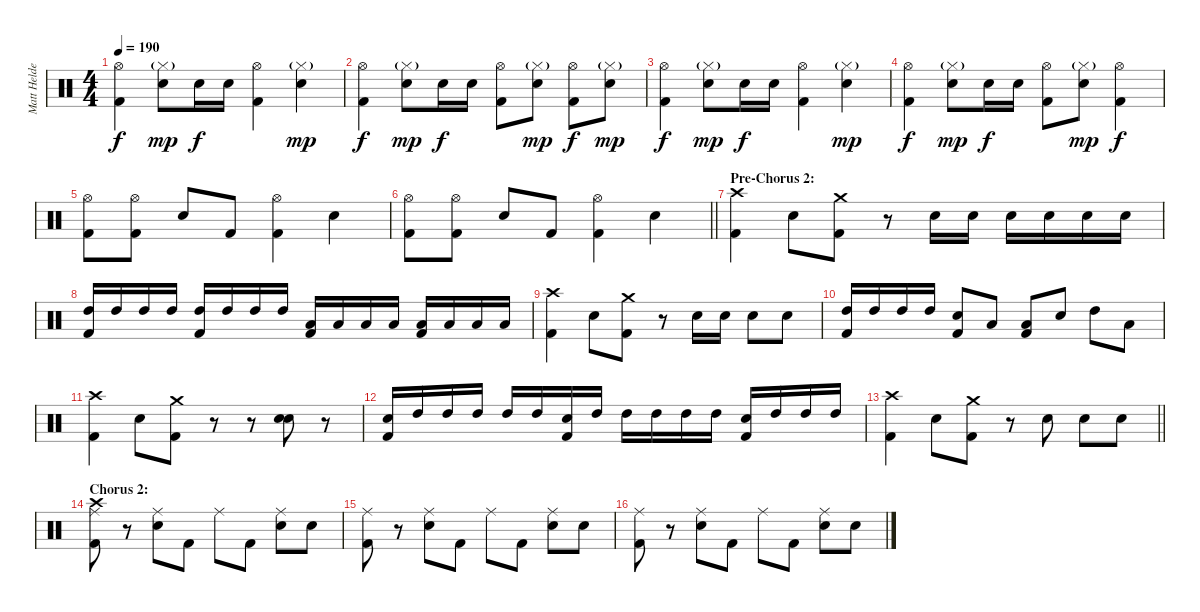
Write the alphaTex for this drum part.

\track ("Matt Helders (Percussion)" "Matt Helde") {instrument percussion}
\staff {score}
\articulation defaults
\ts (4 4)
\tempo 190
\clef neutral
\ks c
("Hi-Hat (open)" "Kick (hit) 2").4{dy f} ("Hi-Hat (closed)"{g} "Snare (hit) 2").8{dy mp} "Snare (hit) 2".16{dy f} "Snare (hit) 2".16 ("Hi-Hat (open)" "Kick (hit) 2").4 ("Hi-Hat (closed)"{g} "Snare (hit) 2").4{dy mp} |
("Hi-Hat (open)" "Kick (hit) 2").4{dy f} ("Hi-Hat (closed)"{g} "Snare (hit) 2").8{dy mp} "Snare (hit) 2".16{dy f} "Snare (hit) 2".16 ("Hi-Hat (open)" "Kick (hit) 2").8 ("Hi-Hat (closed)"{g} "Snare (hit) 2").8{dy mp} ("Hi-Hat (open)" "Kick (hit) 2").8{dy f} ("Hi-Hat (closed)"{g} "Snare (hit) 2").8{dy mp} |
("Hi-Hat (open)" "Kick (hit) 2").4{dy f} ("Hi-Hat (closed)"{g} "Snare (hit) 2").8{dy mp} "Snare (hit) 2".16{dy f} "Snare (hit) 2".16 ("Hi-Hat (open)" "Kick (hit) 2").4 ("Hi-Hat (closed)"{g} "Snare (hit) 2").4{dy mp} |
("Hi-Hat (open)" "Kick (hit) 2").4{dy f} ("Hi-Hat (closed)"{g} "Snare (hit) 2").8{dy mp} "Snare (hit) 2".16{dy f} "Snare (hit) 2".16 ("Hi-Hat (open)" "Kick (hit) 2").8 ("Hi-Hat (closed)"{g} "Snare (hit) 2").8{dy mp} ("Hi-Hat (open)" "Kick (hit) 2").4{dy f} |
("Hi-Hat (open)" "Kick (hit) 2").8 ("Hi-Hat (open)" "Kick (hit) 2").8 "Snare (hit) 2".8 "Kick (hit) 2".8 ("Hi-Hat (open)" "Kick (hit) 2").4 "Snare (hit) 2".4 |
\barLineRight lightlight
("Hi-Hat (open)" "Kick (hit) 2").8 ("Hi-Hat (open)" "Kick (hit) 2").8 "Snare (hit) 2".8 "Kick (hit) 2".8 ("Hi-Hat (open)" "Kick (hit) 2").4 "Snare (hit) 2".4 |
\section ("" "Pre-Chorus 2:")
("Crash high (hit)" "Kick (hit) 2").4 "Snare (hit) 2".8 ("Crash medium (hit)" "Kick (hit) 2").8 r.8 "Snare (hit) 2".16 "Snare (hit) 2".16 "Snare (hit) 2".16 "Snare (hit) 2".16 "Snare (hit) 2".16 "Snare (hit) 2".16 |
("High Tom (hit)" "Kick (hit) 2").16 "High Tom (hit)".16 "High Tom (hit)".16 "High Tom (hit)".16 ("High Tom (hit)" "Kick (hit) 2").16 "High Tom (hit)".16 "High Tom (hit)".16 "High Tom (hit)".16 ("Low Tom (hit)" "Kick (hit) 2").16 "Low Tom (hit)".16 "Low Tom (hit)".16 "Low Tom (hit)".16 ("Low Tom (hit)" "Kick (hit) 2").16 "Low Tom (hit)".16 "Low Tom (hit)".16 "Low Tom (hit)".16 |
("Crash high (hit)" "Kick (hit) 2").4 "Snare (hit) 2".8 ("Crash medium (hit)" "Kick (hit) 2").8 r.8 "Snare (hit) 2".16 "Snare (hit) 2".16 "Snare (hit) 2".8 "Snare (hit) 2".8 |
("High Tom (hit)" "Kick (hit) 2").16 "High Tom (hit)".16 "High Tom (hit)".16 "High Tom (hit)".16 ("Snare (hit) 2" "Kick (hit) 2").8 "Low Tom (hit)".8 ("Low Tom (hit)" "Kick (hit) 2").8 "Snare (hit) 2".8 "High Tom (hit)".8 "Low Tom (hit)".8 |
("Crash high (hit)" "Kick (hit) 2").4 "Snare (hit) 2".8 ("Crash medium (hit)" "Kick (hit) 2").8 r.8 r.8 ("Snare (hit) 2" "Snare (hit) 2").8 r.8 |
("Snare (hit) 2" "Kick (hit) 2").16 "High Tom (hit)".16 "High Tom (hit)".16 "High Tom (hit)".16 "High Tom (hit)".16 "High Tom (hit)".16 ("Snare (hit) 2" "Kick (hit) 2").16 "High Tom (hit)".16 "High Tom (hit)".16 "High Tom (hit)".16 "High Tom (hit)".16 "High Tom (hit)".16 ("Snare (hit) 2" "Kick (hit) 2").16 "High Tom (hit)".16 "High Tom (hit)".16 "High Tom (hit)".16 |
\barLineRight lightlight
("Crash high (hit)" "Kick (hit) 2").4 "Snare (hit) 2".8 ("Crash medium (hit)" "Kick (hit) 2").8 r.8 "Snare (hit) 2".8 "Snare (hit) 2".8 "Snare (hit) 2".8 |
\section ("" "Chorus 2:")
("Crash high (hit)" "Ride (middle)" "Kick (hit) 2").8 r.8 ("Ride (middle)" "Snare (hit) 2").8 "Kick (hit) 2".8 "Ride (middle)".8 "Kick (hit) 2".8 ("Ride (middle)" "Snare (hit) 2").8 "Snare (hit) 2".8 |
("Ride (middle)" "Kick (hit) 2").8 r.8 ("Ride (middle)" "Snare (hit) 2").8 "Kick (hit) 2".8 "Ride (middle)".8 "Kick (hit) 2".8 ("Ride (middle)" "Snare (hit) 2").8 "Snare (hit) 2".8 |
("Ride (middle)" "Kick (hit) 2").8 r.8 ("Ride (middle)" "Snare (hit) 2").8 "Kick (hit) 2".8 "Ride (middle)".8 "Kick (hit) 2".8 ("Ride (middle)" "Snare (hit) 2").8 "Snare (hit) 2".8
